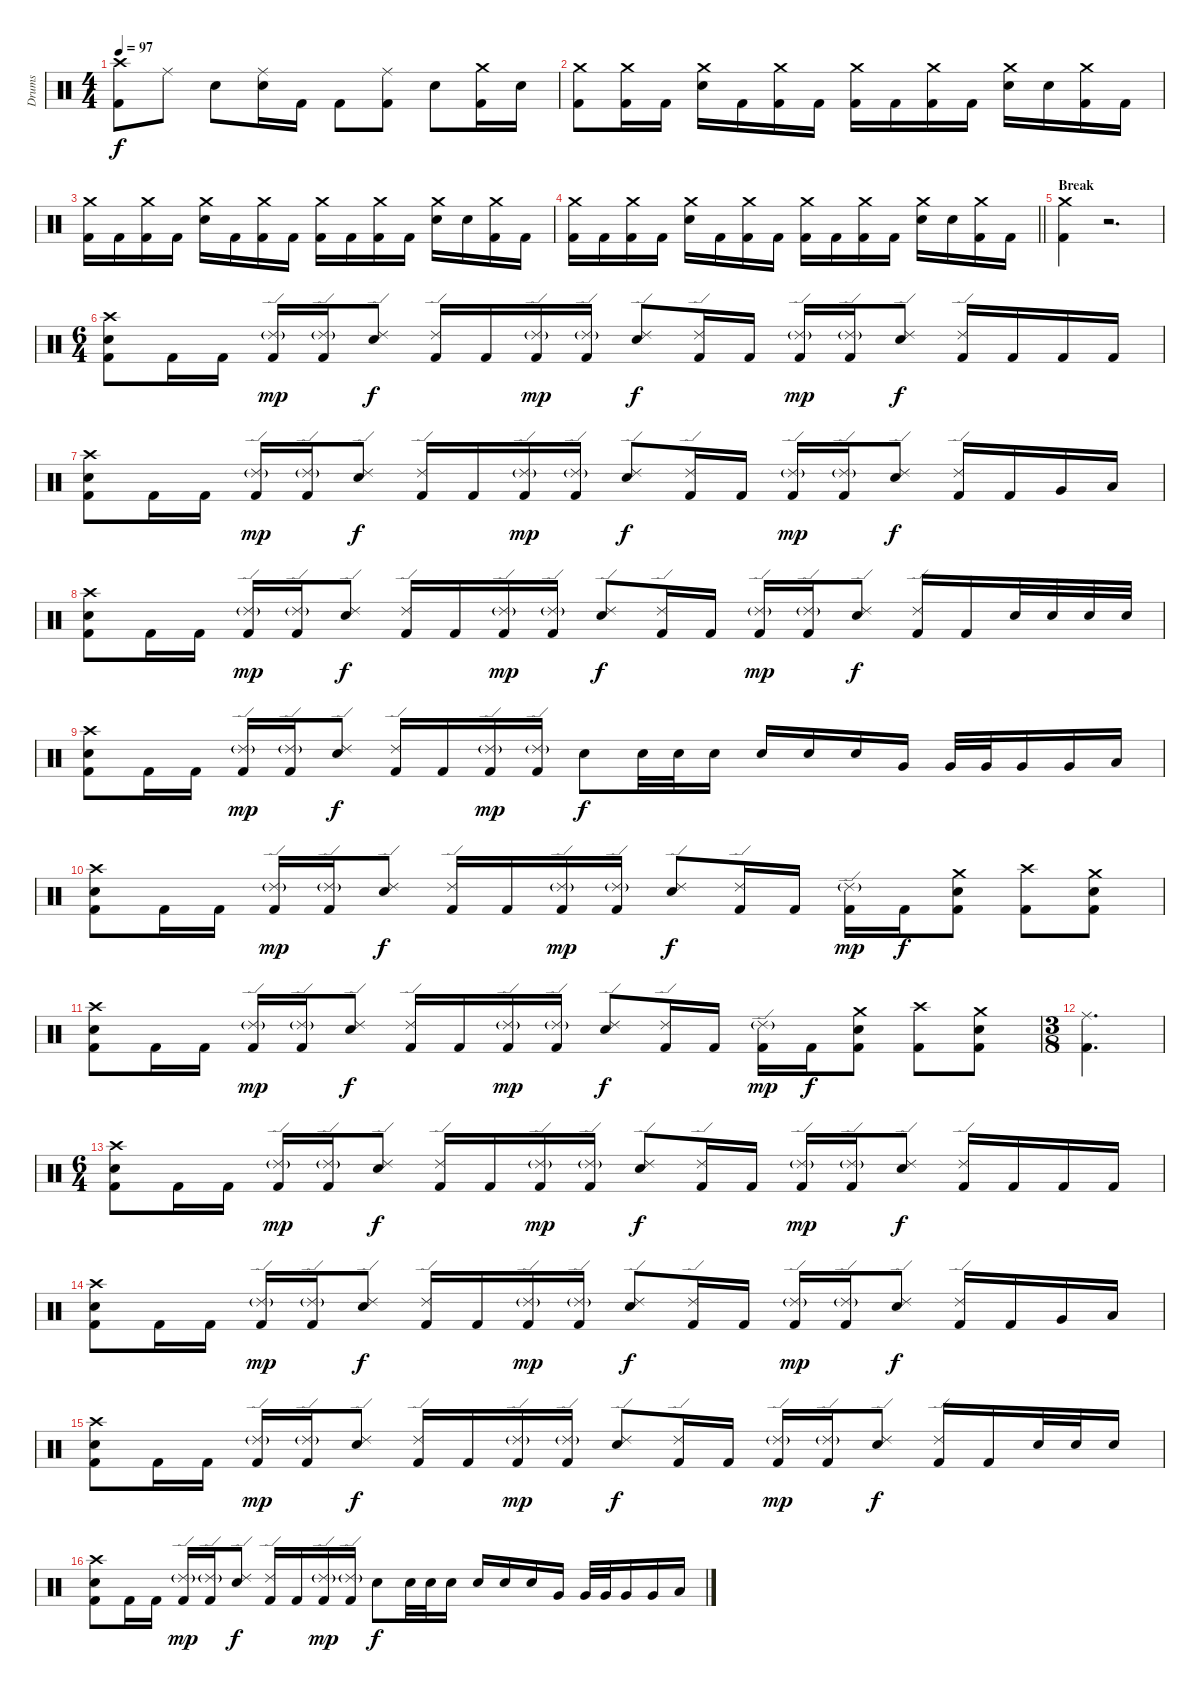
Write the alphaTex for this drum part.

\track ("Drums" "Drums") {instrument percussion}
\staff {score}
\articulation defaults
\ts (4 4)
\tempo 97
\clef neutral
\ks c
("Crash high (hit)" "Kick (hit) 2").8{dy f} "Ride (middle)".8 "Snare (hit) 2".8 ("Ride (middle)" "Snare (hit) 2").16 "Kick (hit) 2".16 "Kick (hit) 2".8 ("Ride (middle)" "Kick (hit) 2").8 "Snare (hit) 2".8 ("Crash medium (hit)" "Kick (hit) 2").16 "Snare (hit) 2".16 |
("Crash medium (hit)" "Kick (hit) 2").8 ("Crash medium (hit)" "Kick (hit) 2").16 "Kick (hit) 2".16 ("Crash medium (hit)" "Snare (hit) 2").16 "Kick (hit) 2".16 ("Crash medium (hit)" "Kick (hit) 2").16 "Kick (hit) 2".16 ("Crash medium (hit)" "Kick (hit) 2").16 "Kick (hit) 2".16 ("Crash medium (hit)" "Kick (hit) 2").16 "Kick (hit) 2".16 ("Crash medium (hit)" "Snare (hit) 2").16 "Snare (hit) 2".16 ("Crash medium (hit)" "Kick (hit) 2").16 "Kick (hit) 2".16 |
("Crash medium (hit)" "Kick (hit) 2").16 "Kick (hit) 2".16 ("Crash medium (hit)" "Kick (hit) 2").16 "Kick (hit) 2".16 ("Crash medium (hit)" "Snare (hit) 2").16 "Kick (hit) 2".16 ("Crash medium (hit)" "Kick (hit) 2").16 "Kick (hit) 2".16 ("Crash medium (hit)" "Kick (hit) 2").16 "Kick (hit) 2".16 ("Crash medium (hit)" "Kick (hit) 2").16 "Kick (hit) 2".16 ("Crash medium (hit)" "Snare (hit) 2").16 "Snare (hit) 2".16 ("Crash medium (hit)" "Kick (hit) 2").16 "Kick (hit) 2".16 |
\barLineRight lightlight
("Crash medium (hit)" "Kick (hit) 2").16 "Kick (hit) 2".16 ("Crash medium (hit)" "Kick (hit) 2").16 "Kick (hit) 2".16 ("Crash medium (hit)" "Snare (hit) 2").16 "Kick (hit) 2".16 ("Crash medium (hit)" "Kick (hit) 2").16 "Kick (hit) 2".16 ("Crash medium (hit)" "Kick (hit) 2").16 "Kick (hit) 2".16 ("Crash medium (hit)" "Kick (hit) 2").16 "Kick (hit) 2".16 ("Crash medium (hit)" "Snare (hit) 2").16 "Snare (hit) 2".16 ("Crash medium (hit)" "Kick (hit) 2").16 "Kick (hit) 2".16 |
\section ("" "Break")
("Crash medium (hit)" "Kick (hit) 2").4 r.2{d} |
\ts (6 4)
("Crash high (hit)" "Snare (hit) 2" "Kick (hit) 2").8 "Kick (hit) 2".16 "Kick (hit) 2".16 ("Ride (edge) 2"{g} "Kick (hit) 2").16{dy mp} ("Ride (edge) 2"{g} "Kick (hit) 2").16 ("Ride (edge) 2" "Snare (hit) 2").8{dy f} ("Ride (edge) 2" "Kick (hit) 2").16 "Kick (hit) 2".16 ("Ride (edge) 2"{g} "Kick (hit) 2").16{dy mp} ("Ride (edge) 2"{g} "Kick (hit) 2").16 ("Ride (edge) 2" "Snare (hit) 2").8{dy f} ("Ride (edge) 2" "Kick (hit) 2").16 "Kick (hit) 2".16 ("Ride (edge) 2"{g} "Kick (hit) 2").16{dy mp} ("Ride (edge) 2"{g} "Kick (hit) 2").16 ("Ride (edge) 2" "Snare (hit) 2").8{dy f} ("Ride (edge) 2" "Kick (hit) 2").16 "Kick (hit) 2".16 "Kick (hit) 2".16 "Kick (hit) 2".16 |
("Crash high (hit)" "Snare (hit) 2" "Kick (hit) 2").8 "Kick (hit) 2".16 "Kick (hit) 2".16 ("Ride (edge) 2"{g} "Kick (hit) 2").16{dy mp} ("Ride (edge) 2"{g} "Kick (hit) 2").16 ("Ride (edge) 2" "Snare (hit) 2").8{dy f} ("Ride (edge) 2" "Kick (hit) 2").16 "Kick (hit) 2".16 ("Ride (edge) 2"{g} "Kick (hit) 2").16{dy mp} ("Ride (edge) 2"{g} "Kick (hit) 2").16 ("Ride (edge) 2" "Snare (hit) 2").8{dy f} ("Ride (edge) 2" "Kick (hit) 2").16 "Kick (hit) 2".16 ("Ride (edge) 2"{g} "Kick (hit) 2").16{dy mp} ("Ride (edge) 2"{g} "Kick (hit) 2").16 ("Ride (edge) 2" "Snare (hit) 2").8{dy f} ("Ride (edge) 2" "Kick (hit) 2").16 "Kick (hit) 2".16 "Very Low Tom (hit)".16 "Low Floor Tom (hit)".16 |
("Crash high (hit)" "Snare (hit) 2" "Kick (hit) 2").8 "Kick (hit) 2".16 "Kick (hit) 2".16 ("Ride (edge) 2"{g} "Kick (hit) 2").16{dy mp} ("Ride (edge) 2"{g} "Kick (hit) 2").16 ("Ride (edge) 2" "Snare (hit) 2").8{dy f} ("Ride (edge) 2" "Kick (hit) 2").16 "Kick (hit) 2".16 ("Ride (edge) 2"{g} "Kick (hit) 2").16{dy mp} ("Ride (edge) 2"{g} "Kick (hit) 2").16 ("Ride (edge) 2" "Snare (hit) 2").8{dy f} ("Ride (edge) 2" "Kick (hit) 2").16 "Kick (hit) 2".16 ("Ride (edge) 2"{g} "Kick (hit) 2").16{dy mp} ("Ride (edge) 2"{g} "Kick (hit) 2").16 ("Ride (edge) 2" "Snare (hit) 2").8{dy f} ("Ride (edge) 2" "Kick (hit) 2").16 "Kick (hit) 2".16 "Snare (hit) 2".32 "Snare (hit) 2".32 "Snare (hit) 2".32 "Snare (hit) 2".32 |
("Crash high (hit)" "Snare (hit) 2" "Kick (hit) 2").8 "Kick (hit) 2".16 "Kick (hit) 2".16 ("Ride (edge) 2"{g} "Kick (hit) 2").16{dy mp} ("Ride (edge) 2"{g} "Kick (hit) 2").16 ("Ride (edge) 2" "Snare (hit) 2").8{dy f} ("Ride (edge) 2" "Kick (hit) 2").16 "Kick (hit) 2".16 ("Ride (edge) 2"{g} "Kick (hit) 2").16{dy mp} ("Ride (edge) 2"{g} "Kick (hit) 2").16 "Snare (hit) 2".8{dy f} "Snare (hit) 2".32 "Snare (hit) 2".32 "Snare (hit) 2".16 "Snare (hit) 2".16 "Snare (hit) 2".16 "Snare (hit) 2".16 "Very Low Tom (hit)".16 "Very Low Tom (hit)".32 "Very Low Tom (hit)".32 "Very Low Tom (hit)".16 "Very Low Tom (hit)".16 "Low Floor Tom (hit)".16 |
("Crash high (hit)" "Snare (hit) 2" "Kick (hit) 2").8 "Kick (hit) 2".16 "Kick (hit) 2".16 ("Ride (edge) 2"{g} "Kick (hit) 2").16{dy mp} ("Ride (edge) 2"{g} "Kick (hit) 2").16 ("Ride (edge) 2" "Snare (hit) 2").8{dy f} ("Ride (edge) 2" "Kick (hit) 2").16 "Kick (hit) 2".16 ("Ride (edge) 2"{g} "Kick (hit) 2").16{dy mp} ("Ride (edge) 2"{g} "Kick (hit) 2").16 ("Ride (edge) 2" "Snare (hit) 2").8{dy f} ("Ride (edge) 2" "Kick (hit) 2").16 "Kick (hit) 2".16 ("Ride (edge) 2"{g} "Kick (hit) 2").16{dy mp} "Kick (hit) 2".16{dy f} ("Crash medium (hit)" "Snare (hit) 2" "Kick (hit) 2").8 ("Crash high (hit)" "Kick (hit) 2").8 ("Crash medium (hit)" "Snare (hit) 2" "Kick (hit) 2").8 |
("Crash high (hit)" "Snare (hit) 2" "Kick (hit) 2").8 "Kick (hit) 2".16 "Kick (hit) 2".16 ("Ride (edge) 2"{g} "Kick (hit) 2").16{dy mp} ("Ride (edge) 2"{g} "Kick (hit) 2").16 ("Ride (edge) 2" "Snare (hit) 2").8{dy f} ("Ride (edge) 2" "Kick (hit) 2").16 "Kick (hit) 2".16 ("Ride (edge) 2"{g} "Kick (hit) 2").16{dy mp} ("Ride (edge) 2"{g} "Kick (hit) 2").16 ("Ride (edge) 2" "Snare (hit) 2").8{dy f} ("Ride (edge) 2" "Kick (hit) 2").16 "Kick (hit) 2".16 ("Ride (edge) 2"{g} "Kick (hit) 2").16{dy mp} "Kick (hit) 2".16{dy f} ("Crash medium (hit)" "Snare (hit) 2" "Kick (hit) 2").8 ("Crash high (hit)" "Kick (hit) 2").8 ("Crash medium (hit)" "Snare (hit) 2" "Kick (hit) 2").8 |
\ts (3 8)
("Ride (middle)" "Kick (hit) 2").4{d} |
\ts (6 4)
("Crash high (hit)" "Snare (hit) 2" "Kick (hit) 2").8 "Kick (hit) 2".16 "Kick (hit) 2".16 ("Ride (edge) 2"{g} "Kick (hit) 2").16{dy mp} ("Ride (edge) 2"{g} "Kick (hit) 2").16 ("Ride (edge) 2" "Snare (hit) 2").8{dy f} ("Ride (edge) 2" "Kick (hit) 2").16 "Kick (hit) 2".16 ("Ride (edge) 2"{g} "Kick (hit) 2").16{dy mp} ("Ride (edge) 2"{g} "Kick (hit) 2").16 ("Ride (edge) 2" "Snare (hit) 2").8{dy f} ("Ride (edge) 2" "Kick (hit) 2").16 "Kick (hit) 2".16 ("Ride (edge) 2"{g} "Kick (hit) 2").16{dy mp} ("Ride (edge) 2"{g} "Kick (hit) 2").16 ("Ride (edge) 2" "Snare (hit) 2").8{dy f} ("Ride (edge) 2" "Kick (hit) 2").16 "Kick (hit) 2".16 "Kick (hit) 2".16 "Kick (hit) 2".16 |
("Crash high (hit)" "Snare (hit) 2" "Kick (hit) 2").8 "Kick (hit) 2".16 "Kick (hit) 2".16 ("Ride (edge) 2"{g} "Kick (hit) 2").16{dy mp} ("Ride (edge) 2"{g} "Kick (hit) 2").16 ("Ride (edge) 2" "Snare (hit) 2").8{dy f} ("Ride (edge) 2" "Kick (hit) 2").16 "Kick (hit) 2".16 ("Ride (edge) 2"{g} "Kick (hit) 2").16{dy mp} ("Ride (edge) 2"{g} "Kick (hit) 2").16 ("Ride (edge) 2" "Snare (hit) 2").8{dy f} ("Ride (edge) 2" "Kick (hit) 2").16 "Kick (hit) 2".16 ("Ride (edge) 2"{g} "Kick (hit) 2").16{dy mp} ("Ride (edge) 2"{g} "Kick (hit) 2").16 ("Ride (edge) 2" "Snare (hit) 2").8{dy f} ("Ride (edge) 2" "Kick (hit) 2").16 "Kick (hit) 2".16 "Very Low Tom (hit)".16 "Low Floor Tom (hit)".16 |
("Crash high (hit)" "Snare (hit) 2" "Kick (hit) 2").8 "Kick (hit) 2".16 "Kick (hit) 2".16 ("Ride (edge) 2"{g} "Kick (hit) 2").16{dy mp} ("Ride (edge) 2"{g} "Kick (hit) 2").16 ("Ride (edge) 2" "Snare (hit) 2").8{dy f} ("Ride (edge) 2" "Kick (hit) 2").16 "Kick (hit) 2".16 ("Ride (edge) 2"{g} "Kick (hit) 2").16{dy mp} ("Ride (edge) 2"{g} "Kick (hit) 2").16 ("Ride (edge) 2" "Snare (hit) 2").8{dy f} ("Ride (edge) 2" "Kick (hit) 2").16 "Kick (hit) 2".16 ("Ride (edge) 2"{g} "Kick (hit) 2").16{dy mp} ("Ride (edge) 2"{g} "Kick (hit) 2").16 ("Ride (edge) 2" "Snare (hit) 2").8{dy f} ("Ride (edge) 2" "Kick (hit) 2").16 "Kick (hit) 2".16 "Snare (hit) 2".32 "Snare (hit) 2".32 "Snare (hit) 2".16 |
("Crash high (hit)" "Snare (hit) 2" "Kick (hit) 2").8 "Kick (hit) 2".16 "Kick (hit) 2".16 ("Ride (edge) 2"{g} "Kick (hit) 2").16{dy mp} ("Ride (edge) 2"{g} "Kick (hit) 2").16 ("Ride (edge) 2" "Snare (hit) 2").8{dy f} ("Ride (edge) 2" "Kick (hit) 2").16 "Kick (hit) 2".16 ("Ride (edge) 2"{g} "Kick (hit) 2").16{dy mp} ("Ride (edge) 2"{g} "Kick (hit) 2").16 "Snare (hit) 2".8{dy f} "Snare (hit) 2".32 "Snare (hit) 2".32 "Snare (hit) 2".16 "Snare (hit) 2".16 "Snare (hit) 2".16 "Snare (hit) 2".16 "Very Low Tom (hit)".16 "Very Low Tom (hit)".32 "Very Low Tom (hit)".32 "Very Low Tom (hit)".16 "Very Low Tom (hit)".16 "Low Floor Tom (hit)".16
